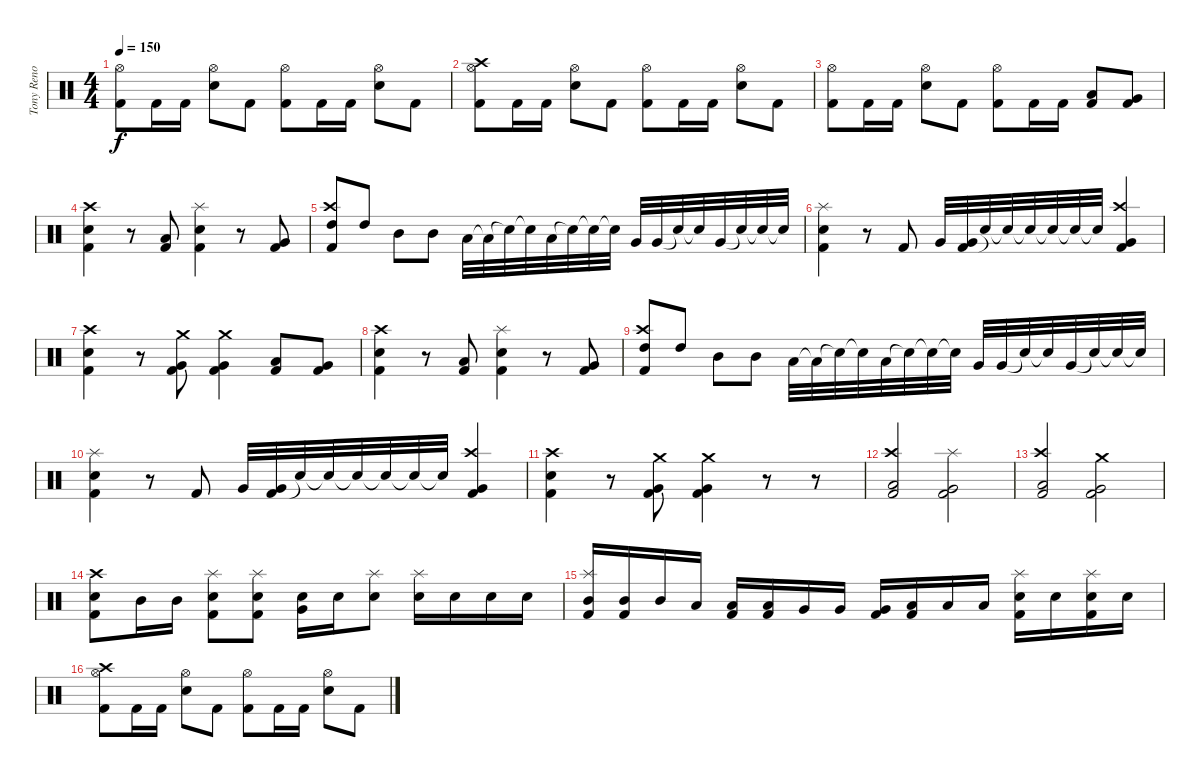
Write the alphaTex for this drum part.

\track ("Tony Reno" "Tony Reno") {instrument percussion}
\staff {score}
\articulation defaults
\ts (4 4)
\tempo 150
\clef neutral
\ks c
("Kick (hit) 2" "Hi-Hat (open)").8{dy f} "Kick (hit) 2".16 "Kick (hit) 2".16 ("Snare (hit) 2" "Hi-Hat (open)").8 "Kick (hit) 2".8 ("Kick (hit) 2" "Hi-Hat (open)").8 "Kick (hit) 2".16 "Kick (hit) 2".16 ("Snare (hit) 2" "Hi-Hat (open)").8 "Kick (hit) 2".8 |
("Kick (hit) 2" "Hi-Hat (open)" "Crash high (hit)").8 "Kick (hit) 2".16 "Kick (hit) 2".16 ("Snare (hit) 2" "Hi-Hat (open)").8 "Kick (hit) 2".8 ("Kick (hit) 2" "Hi-Hat (open)").8 "Kick (hit) 2".16 "Kick (hit) 2".16 ("Snare (hit) 2" "Hi-Hat (open)").8 "Kick (hit) 2".8 |
("Kick (hit) 2" "Hi-Hat (open)").8 "Kick (hit) 2".16 "Kick (hit) 2".16 ("Snare (hit) 2" "Hi-Hat (open)").8 "Kick (hit) 2".8 ("Kick (hit) 2" "Hi-Hat (open)").8 "Kick (hit) 2".16 "Kick (hit) 2".16 ("Kick (hit) 2" "Low Tom (hit)").8 ("Kick (hit) 2" "Very Low Tom (hit)").8 |
("Kick (hit) 2" "Snare (hit) 2" "Crash high (hit)").4 r.8 ("Kick (hit) 2" "Low Tom (hit)").8 ("Kick (hit) 2" "Snare (hit) 2" "Splash (hit)").4 r.8 ("Kick (hit) 2" "Very Low Tom (hit)").8 |
("Kick (hit) 2" "High Tom (hit)" "Crash high (hit)").8 "High Tom (hit)".8 "Mid Tom (hit)".8 "Mid Tom (hit)".8 "Low Tom (hit)".32 "Low Tom (hit)"{t}.32 "Snare (hit)"{t}.32 "Snare (hit)"{t}.32 "Low Tom (hit)".32 "Snare (hit)"{t}.32 "Snare (hit)"{t}.32 "Snare (hit)"{t}.32 "Very Low Tom (hit)".32 "Very Low Tom (hit)".32 "Snare (hit)"{t}.32 "Snare (hit)"{t}.32 "Very Low Tom (hit)".32 "Snare (hit)"{t}.32 "Snare (hit)"{t}.32 "Snare (hit)"{t}.32 |
("Kick (hit) 2" "Snare (hit) 2" "Splash (hit)").4 r.8 "Kick (hit) 2".8 "Very Low Tom (hit)".32 ("Kick (hit) 2" "Very Low Tom (hit)").32 "Snare (hit)"{t}.32 "Snare (hit)"{t}.32 "Snare (hit) 2"{t}.32 "Snare (hit)"{t}.32 "Snare (hit)"{t}.32 "Snare (hit)"{t}.32 ("Kick (hit) 2" "Very Low Tom (hit)" "Crash high (hit)").4 |
("Kick (hit) 2" "Snare (hit) 2" "Crash high (hit)").4 r.8 ("Kick (hit) 2" "Very Low Tom (hit)" "Crash medium (hit)").8 ("Kick (hit) 2" "Very Low Tom (hit)" "Crash medium (hit)").4 ("Kick (hit) 2" "Low Tom (hit)").8 ("Kick (hit) 2" "Very Low Tom (hit)").8 |
("Kick (hit) 2" "Snare (hit) 2" "Crash high (hit)").4 r.8 ("Kick (hit) 2" "Low Tom (hit)").8 ("Kick (hit) 2" "Snare (hit) 2" "Splash (hit)").4 r.8 ("Kick (hit) 2" "Very Low Tom (hit)").8 |
("Kick (hit) 2" "High Tom (hit)" "Crash high (hit)").8 "High Tom (hit)".8 "Mid Tom (hit)".8 "Mid Tom (hit)".8 "Low Tom (hit)".32 "Low Tom (hit)"{t}.32 "Snare (hit)"{t}.32 "Snare (hit)"{t}.32 "Low Tom (hit)".32 "Snare (hit)"{t}.32 "Snare (hit)"{t}.32 "Snare (hit)"{t}.32 "Very Low Tom (hit)".32 "Very Low Tom (hit)".32 "Snare (hit)"{t}.32 "Snare (hit)"{t}.32 "Very Low Tom (hit)".32 "Snare (hit)"{t}.32 "Snare (hit)"{t}.32 "Snare (hit)"{t}.32 |
("Kick (hit) 2" "Snare (hit) 2" "Splash (hit)").4 r.8 "Kick (hit) 2".8 "Very Low Tom (hit)".32 ("Kick (hit) 2" "Very Low Tom (hit)").32 "Snare (hit)"{t}.32 "Snare (hit)"{t}.32 "Snare (hit) 2"{t}.32 "Snare (hit)"{t}.32 "Snare (hit)"{t}.32 "Snare (hit)"{t}.32 ("Kick (hit) 2" "Very Low Tom (hit)" "Crash high (hit)").4 |
("Kick (hit) 2" "Snare (hit) 2" "Crash high (hit)").4 r.8 ("Kick (hit) 2" "Very Low Tom (hit)" "Crash medium (hit)").8 ("Kick (hit) 2" "Very Low Tom (hit)" "Crash medium (hit)").4 r.8 r.8 |
("Kick (hit) 2" "Low Floor Tom (hit)" "Crash high (hit)").2 ("Kick (hit) 2" "Very Low Tom (hit)" "Splash (hit)").2 |
("Kick (hit) 2" "Low Floor Tom (hit)" "Crash high (hit)").2 ("Kick (hit) 2" "Very Low Tom (hit)" "Crash medium (hit)").2 |
("Kick (hit) 2" "Crash high (hit)" "Snare (hit) 2").8 "Mid Tom (hit)".16 "Mid Tom (hit)".16 ("Kick (hit) 2" "Snare (hit) 2" "Splash (hit)").8 ("Kick (hit) 2" "Snare (hit) 2" "Splash (hit)").8 ("Snare (hit) 2" "Very Low Tom (hit)").16 "Snare (hit) 2".16 ("Snare (hit) 2" "Splash (hit)").8 ("Snare (hit) 2" "Splash (hit)").16 "Snare (hit) 2".16 "Snare (hit) 2".16 "Snare (hit) 2".16 |
("Mid Tom (hit)" "Splash (hit)" "Kick (hit) 2").16 ("Mid Tom (hit)" "Kick (hit) 2").16 "Mid Tom (hit)".16 "Low Tom (hit)".16 ("Low Tom (hit)" "Kick (hit) 2").16 ("Low Tom (hit)" "Kick (hit) 2").16 "Very Low Tom (hit)".16 "Very Low Tom (hit)".16 ("Very Low Tom (hit)" "Kick (hit) 2").16 ("Low Floor Tom (hit)" "Kick (hit) 2").16 "Low Floor Tom (hit)".16 "Low Floor Tom (hit)".16 ("Snare (hit) 2" "Kick (hit) 2" "Splash (hit)").16 "Snare (hit) 2".16 ("Snare (hit) 2" "Kick (hit) 2" "Splash (hit)").16 "Snare (hit) 2".16 |
("Kick (hit) 2" "Hi-Hat (open)" "Crash high (hit)").8 "Kick (hit) 2".16 "Kick (hit) 2".16 ("Snare (hit) 2" "Hi-Hat (open)").8 "Kick (hit) 2".8 ("Kick (hit) 2" "Hi-Hat (open)").8 "Kick (hit) 2".16 "Kick (hit) 2".16 ("Snare (hit) 2" "Hi-Hat (open)").8 "Kick (hit) 2".8
